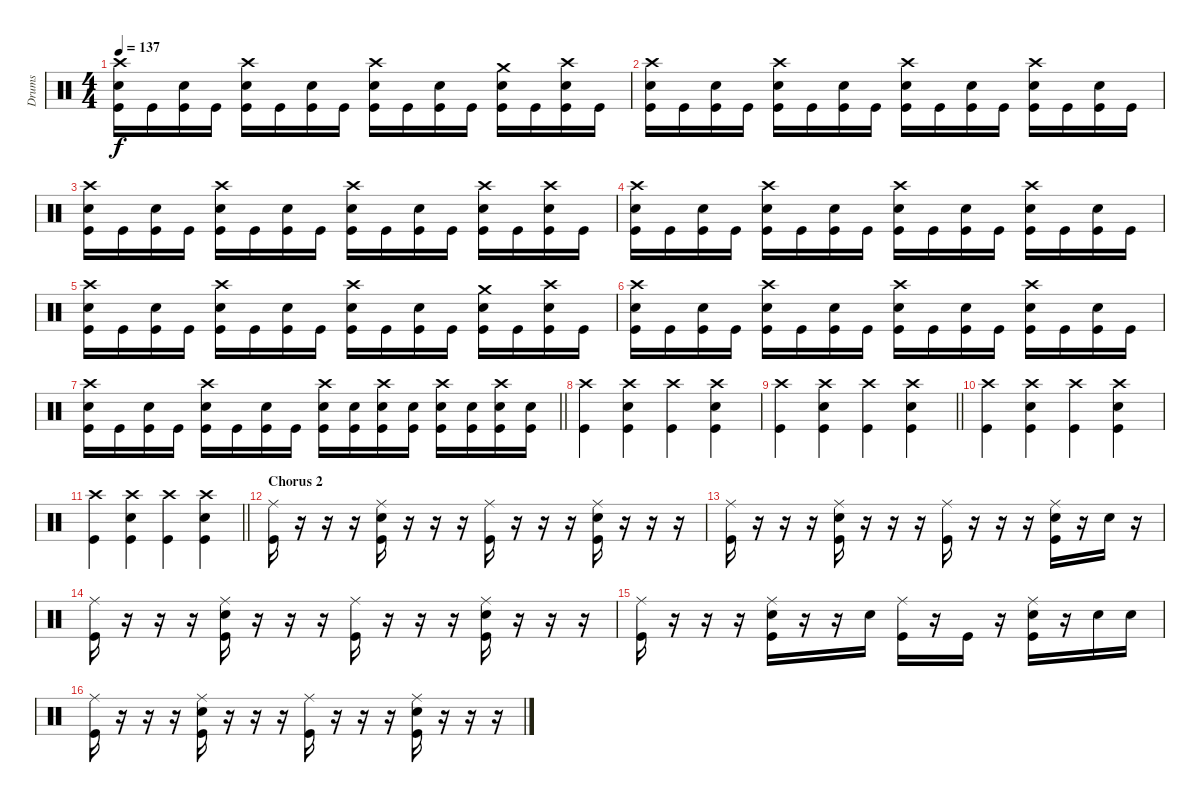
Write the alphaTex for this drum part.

\track ("Drums" "Drums") {instrument percussion}
\staff {score}
\articulation defaults
\ts (4 4)
\tempo 137
\clef neutral
\ks c
("Crash high (hit)" "Snare (hit) 2" "Kick (hit)").16{dy f} "Kick (hit)".16 ("Snare (hit) 2" "Kick (hit)").16 "Kick (hit)".16 ("Crash high (hit)" "Snare (hit) 2" "Kick (hit)").16 "Kick (hit)".16 ("Snare (hit) 2" "Kick (hit)").16 "Kick (hit)".16 ("Crash high (hit)" "Snare (hit) 2" "Kick (hit)").16 "Kick (hit)".16 ("Snare (hit) 2" "Kick (hit)").16 "Kick (hit)".16 ("Crash medium (hit)" "Snare (hit) 2" "Kick (hit)").16 "Kick (hit)".16 ("Crash high (hit)" "Snare (hit) 2" "Kick (hit)").16 "Kick (hit)".16 |
("Crash high (hit)" "Snare (hit) 2" "Kick (hit)").16 "Kick (hit)".16 ("Snare (hit) 2" "Kick (hit)").16 "Kick (hit)".16 ("Crash high (hit)" "Snare (hit) 2" "Kick (hit)").16 "Kick (hit)".16 ("Snare (hit) 2" "Kick (hit)").16 "Kick (hit)".16 ("Crash high (hit)" "Snare (hit) 2" "Kick (hit)").16 "Kick (hit)".16 ("Snare (hit) 2" "Kick (hit)").16 "Kick (hit)".16 ("Crash high (hit)" "Snare (hit) 2" "Kick (hit)").16 "Kick (hit)".16 ("Snare (hit) 2" "Kick (hit)").16 "Kick (hit)".16 |
("Crash high (hit)" "Snare (hit) 2" "Kick (hit)").16 "Kick (hit)".16 ("Snare (hit) 2" "Kick (hit)").16 "Kick (hit)".16 ("Crash high (hit)" "Snare (hit) 2" "Kick (hit)").16 "Kick (hit)".16 ("Snare (hit) 2" "Kick (hit)").16 "Kick (hit)".16 ("Crash high (hit)" "Snare (hit) 2" "Kick (hit)").16 "Kick (hit)".16 ("Snare (hit) 2" "Kick (hit)").16 "Kick (hit)".16 ("Crash high (hit)" "Snare (hit) 2" "Kick (hit)").16 "Kick (hit)".16 ("Crash high (hit)" "Snare (hit) 2" "Kick (hit)").16 "Kick (hit)".16 |
("Crash high (hit)" "Snare (hit) 2" "Kick (hit)").16 "Kick (hit)".16 ("Snare (hit) 2" "Kick (hit)").16 "Kick (hit)".16 ("Crash high (hit)" "Snare (hit) 2" "Kick (hit)").16 "Kick (hit)".16 ("Snare (hit) 2" "Kick (hit)").16 "Kick (hit)".16 ("Crash high (hit)" "Snare (hit) 2" "Kick (hit)").16 "Kick (hit)".16 ("Snare (hit) 2" "Kick (hit)").16 "Kick (hit)".16 ("Crash high (hit)" "Snare (hit) 2" "Kick (hit)").16 "Kick (hit)".16 ("Snare (hit) 2" "Kick (hit)").16 "Kick (hit)".16 |
("Crash high (hit)" "Snare (hit) 2" "Kick (hit)").16 "Kick (hit)".16 ("Snare (hit) 2" "Kick (hit)").16 "Kick (hit)".16 ("Crash high (hit)" "Snare (hit) 2" "Kick (hit)").16 "Kick (hit)".16 ("Snare (hit) 2" "Kick (hit)").16 "Kick (hit)".16 ("Crash high (hit)" "Snare (hit) 2" "Kick (hit)").16 "Kick (hit)".16 ("Snare (hit) 2" "Kick (hit)").16 "Kick (hit)".16 ("Crash medium (hit)" "Snare (hit) 2" "Kick (hit)").16 "Kick (hit)".16 ("Crash high (hit)" "Snare (hit) 2" "Kick (hit)").16 "Kick (hit)".16 |
("Crash high (hit)" "Snare (hit) 2" "Kick (hit)").16 "Kick (hit)".16 ("Snare (hit) 2" "Kick (hit)").16 "Kick (hit)".16 ("Crash high (hit)" "Snare (hit) 2" "Kick (hit)").16 "Kick (hit)".16 ("Snare (hit) 2" "Kick (hit)").16 "Kick (hit)".16 ("Crash high (hit)" "Snare (hit) 2" "Kick (hit)").16 "Kick (hit)".16 ("Snare (hit) 2" "Kick (hit)").16 "Kick (hit)".16 ("Crash high (hit)" "Snare (hit) 2" "Kick (hit)").16 "Kick (hit)".16 ("Snare (hit) 2" "Kick (hit)").16 "Kick (hit)".16 |
\barLineRight lightlight
("Crash high (hit)" "Snare (hit) 2" "Kick (hit)").16 "Kick (hit)".16 ("Snare (hit) 2" "Kick (hit)").16 "Kick (hit)".16 ("Crash high (hit)" "Snare (hit) 2" "Kick (hit)").16 "Kick (hit)".16 ("Snare (hit) 2" "Kick (hit)").16 "Kick (hit)".16 ("Crash high (hit)" "Snare (hit) 2" "Kick (hit)").16 ("Snare (hit) 2" "Kick (hit)").16 ("Crash high (hit)" "Snare (hit) 2" "Kick (hit)").16 ("Snare (hit) 2" "Kick (hit)").16 ("Crash high (hit)" "Snare (hit) 2" "Kick (hit)").16 ("Snare (hit) 2" "Kick (hit)").16 ("Crash high (hit)" "Snare (hit) 2" "Kick (hit)").16 ("Snare (hit) 2" "Kick (hit)").16 |
("Crash high (hit)" "Kick (hit)").4 ("Crash high (hit)" "Snare (hit) 2" "Kick (hit)").4 ("Crash high (hit)" "Kick (hit)").4 ("Crash high (hit)" "Snare (hit) 2" "Kick (hit)").4 |
\barLineRight lightlight
("Crash high (hit)" "Kick (hit)").4 ("Crash high (hit)" "Snare (hit) 2" "Kick (hit)").4 ("Crash high (hit)" "Kick (hit)").4 ("Crash high (hit)" "Snare (hit) 2" "Kick (hit)").4 |
("Crash high (hit)" "Kick (hit)").4 ("Crash high (hit)" "Snare (hit) 2" "Kick (hit)").4 ("Crash high (hit)" "Kick (hit)").4 ("Crash high (hit)" "Snare (hit) 2" "Kick (hit)").4 |
\barLineRight lightlight
("Crash high (hit)" "Kick (hit)").4 ("Crash high (hit)" "Snare (hit) 2" "Kick (hit)").4 ("Crash high (hit)" "Kick (hit)").4 ("Crash high (hit)" "Snare (hit) 2" "Kick (hit)").4 |
\section ("" "Chorus 2")
("Ride (middle)" "Kick (hit)").16 r.16 r.16 r.16 ("Ride (middle)" "Snare (hit) 2" "Kick (hit)").16 r.16 r.16 r.16 ("Ride (middle)" "Kick (hit)").16 r.16 r.16 r.16 ("Ride (middle)" "Snare (hit) 2" "Kick (hit)").16 r.16 r.16 r.16 |
("Ride (middle)" "Kick (hit)").16 r.16 r.16 r.16 ("Ride (middle)" "Snare (hit) 2" "Kick (hit)").16 r.16 r.16 r.16 ("Ride (middle)" "Kick (hit)").16 r.16 r.16 r.16 ("Ride (middle)" "Snare (hit) 2" "Kick (hit)").16 r.16 "Snare (hit) 2".16 r.16 |
("Ride (middle)" "Kick (hit)").16 r.16 r.16 r.16 ("Ride (middle)" "Snare (hit) 2" "Kick (hit)").16 r.16 r.16 r.16 ("Ride (middle)" "Kick (hit)").16 r.16 r.16 r.16 ("Ride (middle)" "Snare (hit) 2" "Kick (hit)").16 r.16 r.16 r.16 |
("Ride (middle)" "Kick (hit)").16 r.16 r.16 r.16 ("Ride (middle)" "Snare (hit) 2" "Kick (hit)").16 r.16 r.16 "Snare (hit) 2".16 ("Ride (middle)" "Kick (hit)").16 r.16 "Kick (hit)".16 r.16 ("Ride (middle)" "Snare (hit) 2" "Kick (hit)").16 r.16 "Snare (hit) 2".16 "Snare (hit) 2".16 |
("Ride (middle)" "Kick (hit)").16 r.16 r.16 r.16 ("Ride (middle)" "Snare (hit) 2" "Kick (hit)").16 r.16 r.16 r.16 ("Ride (middle)" "Kick (hit)").16 r.16 r.16 r.16 ("Ride (middle)" "Snare (hit) 2" "Kick (hit)").16 r.16 r.16 r.16
